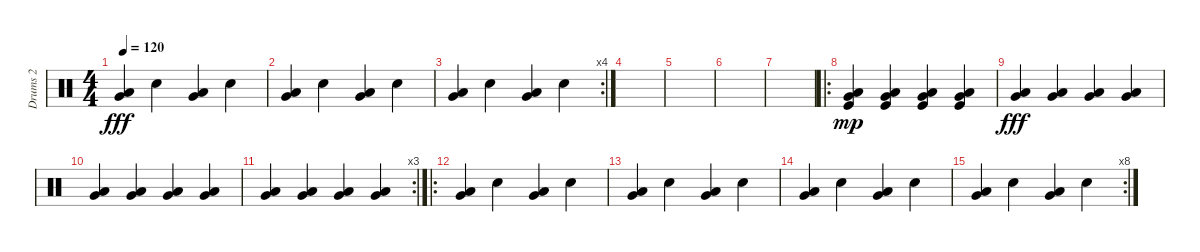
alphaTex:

\track ("Drums 2" "Drums 2") {instrument percussion}
\staff {score}
\articulation defaults
\ts (4 4)
\tempo 120
\clef neutral
\ks c
("Very Low Tom (hit)" "Low Floor Tom (hit)").4{dy fff} "Hand Clap (hit)".4 ("Very Low Tom (hit)" "Low Floor Tom (hit)").4 "Hand Clap (hit)".4 |
("Very Low Tom (hit)" "Low Floor Tom (hit)").4 "Hand Clap (hit)".4 ("Very Low Tom (hit)" "Low Floor Tom (hit)").4 "Hand Clap (hit)".4 |
\rc 4
("Very Low Tom (hit)" "Low Floor Tom (hit)").4 "Hand Clap (hit)".4 ("Very Low Tom (hit)" "Low Floor Tom (hit)").4 "Hand Clap (hit)".4 |
|
|
|
|
\ro
("Very Low Tom (hit)" "Low Floor Tom (hit)" "Kick (hit)").4{dy mp} ("Very Low Tom (hit)" "Low Floor Tom (hit)" "Kick (hit)").4 ("Very Low Tom (hit)" "Low Floor Tom (hit)" "Kick (hit)").4 ("Very Low Tom (hit)" "Low Floor Tom (hit)" "Kick (hit)").4 |
("Very Low Tom (hit)" "Low Floor Tom (hit)").4{dy fff} ("Very Low Tom (hit)" "Low Floor Tom (hit)").4 ("Very Low Tom (hit)" "Low Floor Tom (hit)").4 ("Very Low Tom (hit)" "Low Floor Tom (hit)").4 |
("Very Low Tom (hit)" "Low Floor Tom (hit)").4 ("Very Low Tom (hit)" "Low Floor Tom (hit)").4 ("Very Low Tom (hit)" "Low Floor Tom (hit)").4 ("Very Low Tom (hit)" "Low Floor Tom (hit)").4 |
\rc 3
("Very Low Tom (hit)" "Low Floor Tom (hit)").4 ("Very Low Tom (hit)" "Low Floor Tom (hit)").4 ("Very Low Tom (hit)" "Low Floor Tom (hit)").4 ("Very Low Tom (hit)" "Low Floor Tom (hit)").4 |
\ro
("Very Low Tom (hit)" "Low Floor Tom (hit)").4 "Hand Clap (hit)".4 ("Very Low Tom (hit)" "Low Floor Tom (hit)").4 "Hand Clap (hit)".4 |
("Very Low Tom (hit)" "Low Floor Tom (hit)").4 "Hand Clap (hit)".4 ("Very Low Tom (hit)" "Low Floor Tom (hit)").4 "Hand Clap (hit)".4 |
("Very Low Tom (hit)" "Low Floor Tom (hit)").4 "Hand Clap (hit)".4 ("Very Low Tom (hit)" "Low Floor Tom (hit)").4 "Hand Clap (hit)".4 |
\rc 8
("Very Low Tom (hit)" "Low Floor Tom (hit)").4 "Hand Clap (hit)".4 ("Very Low Tom (hit)" "Low Floor Tom (hit)").4 "Hand Clap (hit)".4
